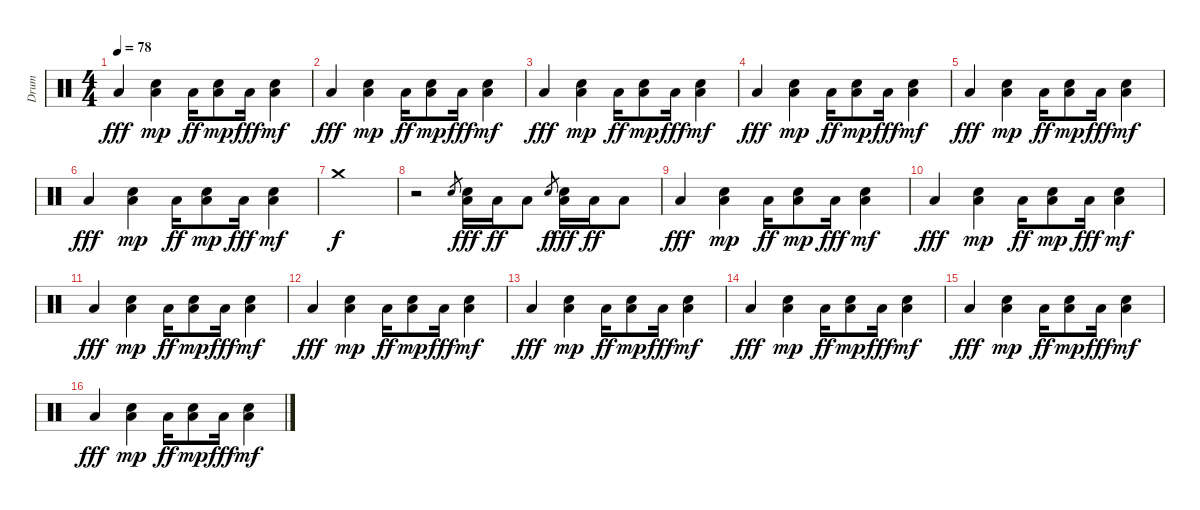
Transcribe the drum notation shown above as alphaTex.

\track ("Drum" "Drum") {instrument percussion}
\staff {score}
\articulation defaults
\ts (4 4)
\tempo 78
\clef neutral
\ks c "Low Floor Tom (hit)".4{dy fff}
("Electric Snare (hit)" "Low Floor Tom (hit)").4{dy mp} "Low Floor Tom (hit)".16{dy ff} ("Electric Snare (hit)" "Low Floor Tom (hit)").8{dy mp} "Low Floor Tom (hit)".16{dy fff} ("Electric Snare (hit)" "Low Floor Tom (hit)").4{dy mf} |
"Low Floor Tom (hit)".4{dy fff} ("Electric Snare (hit)" "Low Floor Tom (hit)").4{dy mp} "Low Floor Tom (hit)".16{dy ff} ("Electric Snare (hit)" "Low Floor Tom (hit)").8{dy mp} "Low Floor Tom (hit)".16{dy fff} ("Electric Snare (hit)" "Low Floor Tom (hit)").4{dy mf} |
"Low Floor Tom (hit)".4{dy fff} ("Electric Snare (hit)" "Low Floor Tom (hit)").4{dy mp} "Low Floor Tom (hit)".16{dy ff} ("Electric Snare (hit)" "Low Floor Tom (hit)").8{dy mp} "Low Floor Tom (hit)".16{dy fff} ("Electric Snare (hit)" "Low Floor Tom (hit)").4{dy mf} |
"Low Floor Tom (hit)".4{dy fff} ("Electric Snare (hit)" "Low Floor Tom (hit)").4{dy mp} "Low Floor Tom (hit)".16{dy ff} ("Electric Snare (hit)" "Low Floor Tom (hit)").8{dy mp} "Low Floor Tom (hit)".16{dy fff} ("Electric Snare (hit)" "Low Floor Tom (hit)").4{dy mf} |
"Low Floor Tom (hit)".4{dy fff} ("Electric Snare (hit)" "Low Floor Tom (hit)").4{dy mp} "Low Floor Tom (hit)".16{dy ff} ("Electric Snare (hit)" "Low Floor Tom (hit)").8{dy mp} "Low Floor Tom (hit)".16{dy fff} ("Electric Snare (hit)" "Low Floor Tom (hit)").4{dy mf} |
"Low Floor Tom (hit)".4{dy fff} ("Electric Snare (hit)" "Low Floor Tom (hit)").4{dy mp} "Low Floor Tom (hit)".16{dy ff} ("Electric Snare (hit)" "Low Floor Tom (hit)").8{dy mp} "Low Floor Tom (hit)".16{dy fff} ("Electric Snare (hit)" "Low Floor Tom (hit)").4{dy mf} |
"Crash medium (hit)".1{dy f} |
r.2 "Electric Snare (hit)".8{gr} ("Electric Snare (hit)" "Low Floor Tom (hit)").16{dy fff} "Low Floor Tom (hit)".16{dy ff} "Low Floor Tom (hit)".8 "Electric Snare (hit)".8{gr dy f} ("Electric Snare (hit)" "Low Floor Tom (hit)").16{dy fff} "Low Floor Tom (hit)".16{dy ff} "Low Floor Tom (hit)".8 |
"Low Floor Tom (hit)".4{dy fff volume 12} ("Electric Snare (hit)" "Low Floor Tom (hit)").4{dy mp} "Low Floor Tom (hit)".16{dy ff} ("Electric Snare (hit)" "Low Floor Tom (hit)").8{dy mp} "Low Floor Tom (hit)".16{dy fff} ("Electric Snare (hit)" "Low Floor Tom (hit)").4{dy mf} |
"Low Floor Tom (hit)".4{dy fff} ("Electric Snare (hit)" "Low Floor Tom (hit)").4{dy mp} "Low Floor Tom (hit)".16{dy ff} ("Electric Snare (hit)" "Low Floor Tom (hit)").8{dy mp} "Low Floor Tom (hit)".16{dy fff} ("Electric Snare (hit)" "Low Floor Tom (hit)").4{dy mf} |
"Low Floor Tom (hit)".4{dy fff} ("Electric Snare (hit)" "Low Floor Tom (hit)").4{dy mp} "Low Floor Tom (hit)".16{dy ff} ("Electric Snare (hit)" "Low Floor Tom (hit)").8{dy mp} "Low Floor Tom (hit)".16{dy fff} ("Electric Snare (hit)" "Low Floor Tom (hit)").4{dy mf} |
"Low Floor Tom (hit)".4{dy fff} ("Electric Snare (hit)" "Low Floor Tom (hit)").4{dy mp} "Low Floor Tom (hit)".16{dy ff} ("Electric Snare (hit)" "Low Floor Tom (hit)").8{dy mp} "Low Floor Tom (hit)".16{dy fff} ("Electric Snare (hit)" "Low Floor Tom (hit)").4{dy mf} |
"Low Floor Tom (hit)".4{dy fff} ("Electric Snare (hit)" "Low Floor Tom (hit)").4{dy mp} "Low Floor Tom (hit)".16{dy ff} ("Electric Snare (hit)" "Low Floor Tom (hit)").8{dy mp} "Low Floor Tom (hit)".16{dy fff} ("Electric Snare (hit)" "Low Floor Tom (hit)").4{dy mf} |
"Low Floor Tom (hit)".4{dy fff} ("Electric Snare (hit)" "Low Floor Tom (hit)").4{dy mp} "Low Floor Tom (hit)".16{dy ff} ("Electric Snare (hit)" "Low Floor Tom (hit)").8{dy mp} "Low Floor Tom (hit)".16{dy fff} ("Electric Snare (hit)" "Low Floor Tom (hit)").4{dy mf} |
"Low Floor Tom (hit)".4{dy fff volume 12} ("Electric Snare (hit)" "Low Floor Tom (hit)").4{dy mp} "Low Floor Tom (hit)".16{dy ff} ("Electric Snare (hit)" "Low Floor Tom (hit)").8{dy mp} "Low Floor Tom (hit)".16{dy fff} ("Electric Snare (hit)" "Low Floor Tom (hit)").4{dy mf} |
"Low Floor Tom (hit)".4{dy fff} ("Electric Snare (hit)" "Low Floor Tom (hit)").4{dy mp} "Low Floor Tom (hit)".16{dy ff} ("Electric Snare (hit)" "Low Floor Tom (hit)").8{dy mp} "Low Floor Tom (hit)".16{dy fff} ("Electric Snare (hit)" "Low Floor Tom (hit)").4{dy mf}
